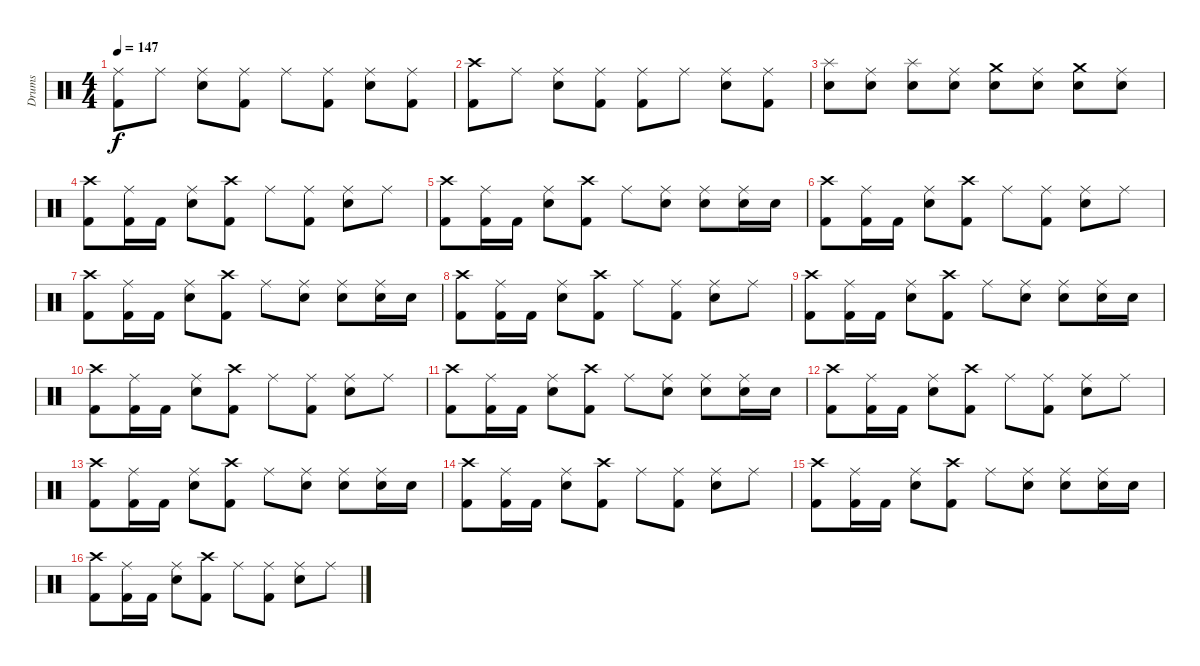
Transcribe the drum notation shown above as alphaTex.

\track ("Drums" "Drums") {instrument percussion}
\staff {score}
\articulation defaults
\ts (4 4)
\tempo 147
\clef neutral
\ks c
("Kick (hit) 2" "Ride (middle)").8{dy f} "Ride (middle)".8 ("Electric Snare (hit)" "Ride (middle)").8 ("Ride (middle)" "Kick (hit) 2").8 "Ride (middle)".8 ("Ride (middle)" "Kick (hit) 2").8 ("Electric Snare (hit)" "Ride (middle)").8 ("Ride (middle)" "Kick (hit) 2").8 |
("Kick (hit) 2" "Crash high (hit)").8 "Ride (middle)".8 ("Electric Snare (hit)" "Ride (middle)").8 ("Ride (middle)" "Kick (hit) 2").8 ("Kick (hit) 2" "Ride (middle)").8 "Ride (middle)".8 ("Electric Snare (hit)" "Ride (middle)").8 ("Ride (middle)" "Kick (hit) 2").8 |
("Electric Snare (hit)" "Splash (hit)").8 ("Ride (middle)" "Electric Snare (hit)").8 ("Electric Snare (hit)" "Splash (hit)").8 ("Ride (middle)" "Electric Snare (hit)").8 ("Crash medium (hit)" "Electric Snare (hit)").8 ("Ride (middle)" "Electric Snare (hit)").8 ("Electric Snare (hit)" "Crash medium (hit)").8 ("Ride (middle)" "Electric Snare (hit)").8 |
("Kick (hit) 2" "Crash high (hit)").8 ("Ride (middle)" "Kick (hit) 2").16 "Kick (hit) 2".16 ("Electric Snare (hit)" "Ride (middle)").8 ("Crash high (hit)" "Kick (hit) 2").8 "Ride (middle)".8 ("Ride (middle)" "Kick (hit) 2").8 ("Electric Snare (hit)" "Ride (middle)").8 "Ride (middle)".8 |
("Kick (hit) 2" "Crash high (hit)").8 ("Ride (middle)" "Kick (hit) 2").16 "Kick (hit) 2".16 ("Electric Snare (hit)" "Ride (middle)").8 ("Crash high (hit)" "Kick (hit) 2").8 "Ride (middle)".8 ("Ride (middle)" "Electric Snare (hit)").8 ("Electric Snare (hit)" "Ride (middle)").8 ("Ride (middle)" "Electric Snare (hit)").16 "Electric Snare (hit)".16 |
("Kick (hit) 2" "Crash high (hit)").8 ("Ride (middle)" "Kick (hit) 2").16 "Kick (hit) 2".16 ("Electric Snare (hit)" "Ride (middle)").8 ("Crash high (hit)" "Kick (hit) 2").8 "Ride (middle)".8 ("Ride (middle)" "Kick (hit) 2").8 ("Electric Snare (hit)" "Ride (middle)").8 "Ride (middle)".8 |
("Kick (hit) 2" "Crash high (hit)").8 ("Ride (middle)" "Kick (hit) 2").16 "Kick (hit) 2".16 ("Electric Snare (hit)" "Ride (middle)").8 ("Crash high (hit)" "Kick (hit) 2").8 "Ride (middle)".8 ("Ride (middle)" "Electric Snare (hit)").8 ("Electric Snare (hit)" "Ride (middle)").8 ("Ride (middle)" "Electric Snare (hit)").16 "Electric Snare (hit)".16 |
("Kick (hit) 2" "Crash high (hit)").8 ("Ride (middle)" "Kick (hit) 2").16 "Kick (hit) 2".16 ("Electric Snare (hit)" "Ride (middle)").8 ("Crash high (hit)" "Kick (hit) 2").8 "Ride (middle)".8 ("Ride (middle)" "Kick (hit) 2").8 ("Electric Snare (hit)" "Ride (middle)").8 "Ride (middle)".8 |
("Kick (hit) 2" "Crash high (hit)").8 ("Ride (middle)" "Kick (hit) 2").16 "Kick (hit) 2".16 ("Electric Snare (hit)" "Ride (middle)").8 ("Crash high (hit)" "Kick (hit) 2").8 "Ride (middle)".8 ("Ride (middle)" "Electric Snare (hit)").8 ("Electric Snare (hit)" "Ride (middle)").8 ("Ride (middle)" "Electric Snare (hit)").16 "Electric Snare (hit)".16 |
("Kick (hit) 2" "Crash high (hit)").8 ("Ride (middle)" "Kick (hit) 2").16 "Kick (hit) 2".16 ("Electric Snare (hit)" "Ride (middle)").8 ("Crash high (hit)" "Kick (hit) 2").8 "Ride (middle)".8 ("Ride (middle)" "Kick (hit) 2").8 ("Electric Snare (hit)" "Ride (middle)").8 "Ride (middle)".8 |
("Kick (hit) 2" "Crash high (hit)").8 ("Ride (middle)" "Kick (hit) 2").16 "Kick (hit) 2".16 ("Electric Snare (hit)" "Ride (middle)").8 ("Crash high (hit)" "Kick (hit) 2").8 "Ride (middle)".8 ("Ride (middle)" "Electric Snare (hit)").8 ("Electric Snare (hit)" "Ride (middle)").8 ("Ride (middle)" "Electric Snare (hit)").16 "Electric Snare (hit)".16 |
("Kick (hit) 2" "Crash high (hit)").8 ("Ride (middle)" "Kick (hit) 2").16 "Kick (hit) 2".16 ("Electric Snare (hit)" "Ride (middle)").8 ("Crash high (hit)" "Kick (hit) 2").8 "Ride (middle)".8 ("Ride (middle)" "Kick (hit) 2").8 ("Electric Snare (hit)" "Ride (middle)").8 "Ride (middle)".8 |
("Kick (hit) 2" "Crash high (hit)").8 ("Ride (middle)" "Kick (hit) 2").16 "Kick (hit) 2".16 ("Electric Snare (hit)" "Ride (middle)").8 ("Crash high (hit)" "Kick (hit) 2").8 "Ride (middle)".8 ("Ride (middle)" "Electric Snare (hit)").8 ("Electric Snare (hit)" "Ride (middle)").8 ("Ride (middle)" "Electric Snare (hit)").16 "Electric Snare (hit)".16 |
("Kick (hit) 2" "Crash high (hit)").8 ("Ride (middle)" "Kick (hit) 2").16 "Kick (hit) 2".16 ("Electric Snare (hit)" "Ride (middle)").8 ("Crash high (hit)" "Kick (hit) 2").8 "Ride (middle)".8 ("Ride (middle)" "Kick (hit) 2").8 ("Electric Snare (hit)" "Ride (middle)").8 "Ride (middle)".8 |
("Kick (hit) 2" "Crash high (hit)").8 ("Ride (middle)" "Kick (hit) 2").16 "Kick (hit) 2".16 ("Electric Snare (hit)" "Ride (middle)").8 ("Crash high (hit)" "Kick (hit) 2").8 "Ride (middle)".8 ("Ride (middle)" "Electric Snare (hit)").8 ("Electric Snare (hit)" "Ride (middle)").8 ("Ride (middle)" "Electric Snare (hit)").16 "Electric Snare (hit)".16 |
("Kick (hit) 2" "Crash high (hit)").8 ("Ride (middle)" "Kick (hit) 2").16 "Kick (hit) 2".16 ("Electric Snare (hit)" "Ride (middle)").8 ("Crash high (hit)" "Kick (hit) 2").8 "Ride (middle)".8 ("Ride (middle)" "Kick (hit) 2").8 ("Electric Snare (hit)" "Ride (middle)").8 "Ride (middle)".8
